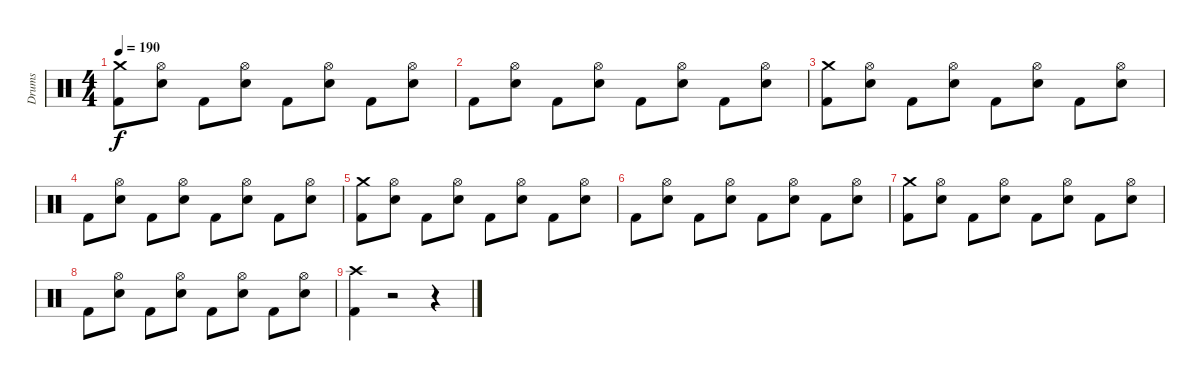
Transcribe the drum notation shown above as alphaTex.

\track ("Drums" "Drums") {instrument percussion}
\staff {score}
\articulation defaults
\ts (4 4)
\tempo 190
\clef neutral
\ks c
("Kick (hit) 2" "Crash medium (hit)").8{dy f} ("Hi-Hat (open)" "Electric Snare (hit)").8 "Kick (hit) 2".8 ("Hi-Hat (open)" "Electric Snare (hit)").8 "Kick (hit) 2".8 ("Hi-Hat (open)" "Electric Snare (hit)").8 "Kick (hit) 2".8 ("Hi-Hat (open)" "Electric Snare (hit)").8 |
"Kick (hit) 2".8 ("Hi-Hat (open)" "Electric Snare (hit)").8 "Kick (hit) 2".8 ("Hi-Hat (open)" "Electric Snare (hit)").8 "Kick (hit) 2".8 ("Hi-Hat (open)" "Electric Snare (hit)").8 "Kick (hit) 2".8 ("Hi-Hat (open)" "Electric Snare (hit)").8 |
("Kick (hit) 2" "Crash medium (hit)").8 ("Hi-Hat (open)" "Electric Snare (hit)").8 "Kick (hit) 2".8 ("Hi-Hat (open)" "Electric Snare (hit)").8 "Kick (hit) 2".8 ("Hi-Hat (open)" "Electric Snare (hit)").8 "Kick (hit) 2".8 ("Hi-Hat (open)" "Electric Snare (hit)").8 |
"Kick (hit) 2".8 ("Hi-Hat (open)" "Electric Snare (hit)").8 "Kick (hit) 2".8 ("Hi-Hat (open)" "Electric Snare (hit)").8 "Kick (hit) 2".8 ("Hi-Hat (open)" "Electric Snare (hit)").8 "Kick (hit) 2".8 ("Hi-Hat (open)" "Electric Snare (hit)").8 |
("Kick (hit) 2" "Crash medium (hit)").8 ("Hi-Hat (open)" "Electric Snare (hit)").8 "Kick (hit) 2".8 ("Hi-Hat (open)" "Electric Snare (hit)").8 "Kick (hit) 2".8 ("Hi-Hat (open)" "Electric Snare (hit)").8 "Kick (hit) 2".8 ("Hi-Hat (open)" "Electric Snare (hit)").8 |
"Kick (hit) 2".8 ("Hi-Hat (open)" "Electric Snare (hit)").8 "Kick (hit) 2".8 ("Hi-Hat (open)" "Electric Snare (hit)").8 "Kick (hit) 2".8 ("Hi-Hat (open)" "Electric Snare (hit)").8 "Kick (hit) 2".8 ("Hi-Hat (open)" "Electric Snare (hit)").8 |
("Kick (hit) 2" "Crash medium (hit)").8 ("Hi-Hat (open)" "Electric Snare (hit)").8 "Kick (hit) 2".8 ("Hi-Hat (open)" "Electric Snare (hit)").8 "Kick (hit) 2".8 ("Hi-Hat (open)" "Electric Snare (hit)").8 "Kick (hit) 2".8 ("Hi-Hat (open)" "Electric Snare (hit)").8 |
"Kick (hit) 2".8 ("Hi-Hat (open)" "Electric Snare (hit)").8 "Kick (hit) 2".8 ("Hi-Hat (open)" "Electric Snare (hit)").8 "Kick (hit) 2".8 ("Hi-Hat (open)" "Electric Snare (hit)").8 "Kick (hit) 2".8 ("Hi-Hat (open)" "Electric Snare (hit)").8 |
("Crash high (hit)" "Kick (hit) 2").4 r.2 r.4
